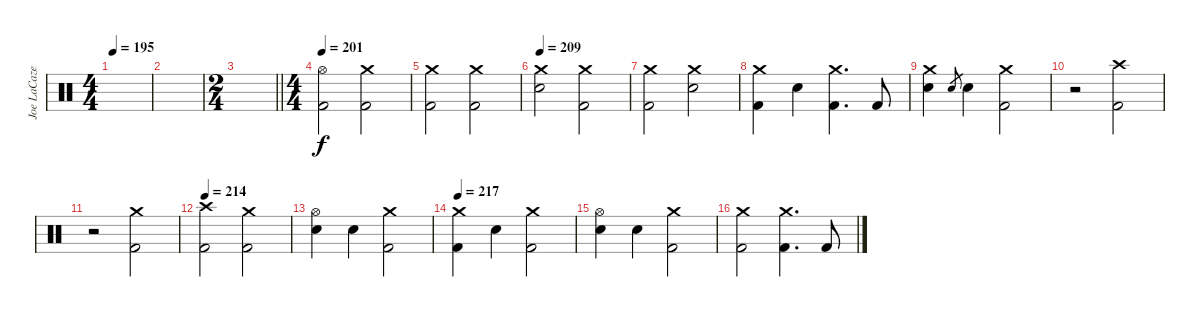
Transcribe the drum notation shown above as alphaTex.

\track ("Joe LaCaze" "Joe LaCaze") {instrument percussion}
\staff {score}
\articulation defaults
\ts (4 4)
\tempo 195
\clef neutral
\ks c
|
|
\ts (2 4)
\barLineRight lightlight
|
\ts (4 4)
\section ("" "")
\tempo 201
("Hi-Hat (open)" "Kick (hit) 2").2 ("Crash medium (hit)" "Kick (hit) 2").2 |
("Crash medium (hit)" "Kick (hit) 2").2 ("Crash medium (hit)" "Kick (hit) 2").2 |
\tempo 209
("Crash medium (hit)" "Electric Snare (hit)").2 ("Crash medium (hit)" "Kick (hit) 2").2 |
("Crash medium (hit)" "Kick (hit) 2").2 ("Crash medium (hit)" "Electric Snare (hit)").2 |
("Crash medium (hit)" "Kick (hit) 2").4 "Electric Snare (hit)".4 ("Crash medium (hit)" "Kick (hit) 2").4{d} "Kick (hit) 2".8 |
("Crash medium (hit)" "Electric Snare (hit)").4 "Electric Snare (hit)".8{gr} "Electric Snare (hit)".4 ("Crash medium (hit)" "Kick (hit) 2").2 |
r.2 ("Crash high (hit)" "Kick (hit) 2").2 |
r.2 ("Crash medium (hit)" "Kick (hit) 2").2 |
\tempo 214
("Crash high (hit)" "Kick (hit) 2").2 ("Crash medium (hit)" "Kick (hit) 2").2 |
("Hi-Hat (open)" "Electric Snare (hit)").4 "Electric Snare (hit)".4 ("Crash medium (hit)" "Kick (hit) 2").2 |
\tempo 217
("Crash medium (hit)" "Kick (hit) 2").4 "Electric Snare (hit)".4 ("Crash medium (hit)" "Kick (hit) 2").2 |
("Hi-Hat (open)" "Electric Snare (hit)").4 "Electric Snare (hit)".4 ("Crash medium (hit)" "Kick (hit) 2").2 |
("Crash medium (hit)" "Kick (hit) 2").2 ("Crash medium (hit)" "Kick (hit) 2").4{d} "Kick (hit) 2".8
